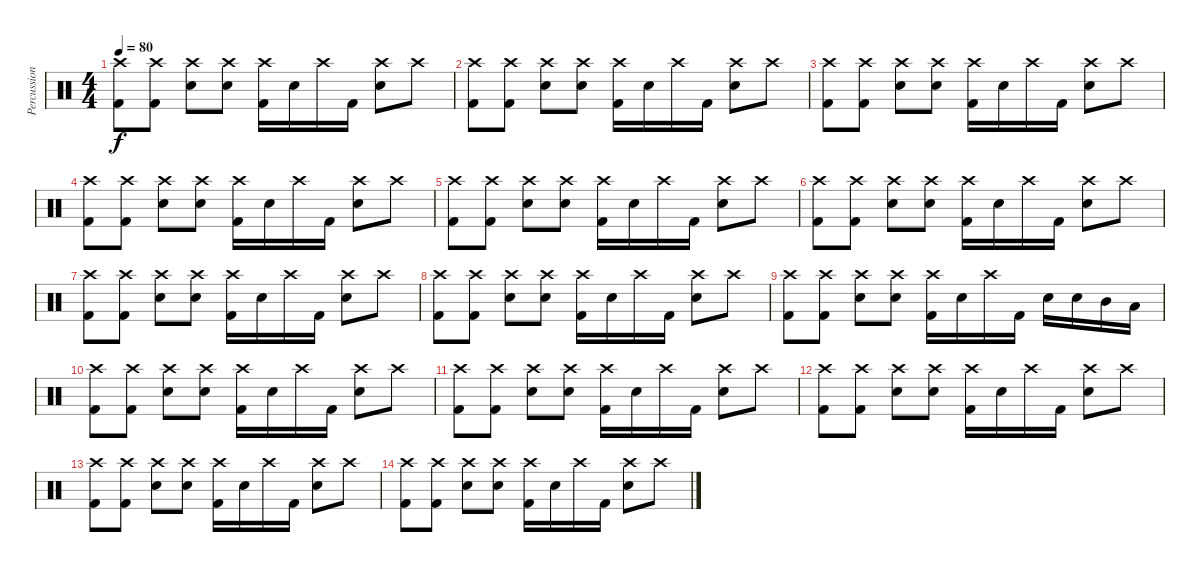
\track ("Percussion" "Percussion") {instrument percussion}
\staff {score}
\articulation defaults
\ts (4 4)
\tempo 80
\clef neutral
\ks c
("Kick (hit) 2" "Crash high (hit)").8{dy f} ("Kick (hit) 2" "Crash high (hit)").8 ("Electric Snare (hit)" "Crash high (hit)").8 ("Electric Snare (hit)" "Crash high (hit)").8 ("Kick (hit) 2" "Crash high (hit)").16 "Electric Snare (hit)".16 "Crash high (hit)".16 "Kick (hit) 2".16 ("Electric Snare (hit)" "Crash high (hit)").8 "Crash high (hit)".8 |
("Kick (hit) 2" "Crash high (hit)").8 ("Kick (hit) 2" "Crash high (hit)").8 ("Electric Snare (hit)" "Crash high (hit)").8 ("Electric Snare (hit)" "Crash high (hit)").8 ("Kick (hit) 2" "Crash high (hit)").16 "Electric Snare (hit)".16 "Crash high (hit)".16 "Kick (hit) 2".16 ("Electric Snare (hit)" "Crash high (hit)").8 "Crash high (hit)".8 |
("Kick (hit) 2" "Crash high (hit)").8 ("Kick (hit) 2" "Crash high (hit)").8 ("Electric Snare (hit)" "Crash high (hit)").8 ("Electric Snare (hit)" "Crash high (hit)").8 ("Kick (hit) 2" "Crash high (hit)").16 "Electric Snare (hit)".16 "Crash high (hit)".16 "Kick (hit) 2".16 ("Electric Snare (hit)" "Crash high (hit)").8 "Crash high (hit)".8 |
("Kick (hit) 2" "Crash high (hit)").8 ("Kick (hit) 2" "Crash high (hit)").8 ("Electric Snare (hit)" "Crash high (hit)").8 ("Electric Snare (hit)" "Crash high (hit)").8 ("Kick (hit) 2" "Crash high (hit)").16 "Electric Snare (hit)".16 "Crash high (hit)".16 "Kick (hit) 2".16 ("Electric Snare (hit)" "Crash high (hit)").8 "Crash high (hit)".8 |
("Kick (hit) 2" "Crash high (hit)").8 ("Kick (hit) 2" "Crash high (hit)").8 ("Electric Snare (hit)" "Crash high (hit)").8 ("Electric Snare (hit)" "Crash high (hit)").8 ("Kick (hit) 2" "Crash high (hit)").16 "Electric Snare (hit)".16 "Crash high (hit)".16 "Kick (hit) 2".16 ("Electric Snare (hit)" "Crash high (hit)").8 "Crash high (hit)".8 |
("Kick (hit) 2" "Crash high (hit)").8 ("Kick (hit) 2" "Crash high (hit)").8 ("Electric Snare (hit)" "Crash high (hit)").8 ("Electric Snare (hit)" "Crash high (hit)").8 ("Kick (hit) 2" "Crash high (hit)").16 "Electric Snare (hit)".16 "Crash high (hit)".16 "Kick (hit) 2".16 ("Electric Snare (hit)" "Crash high (hit)").8 "Crash high (hit)".8 |
("Kick (hit) 2" "Crash high (hit)").8 ("Kick (hit) 2" "Crash high (hit)").8 ("Electric Snare (hit)" "Crash high (hit)").8 ("Electric Snare (hit)" "Crash high (hit)").8 ("Kick (hit) 2" "Crash high (hit)").16 "Electric Snare (hit)".16 "Crash high (hit)".16 "Kick (hit) 2".16 ("Electric Snare (hit)" "Crash high (hit)").8 "Crash high (hit)".8 |
("Kick (hit) 2" "Crash high (hit)").8 ("Kick (hit) 2" "Crash high (hit)").8 ("Electric Snare (hit)" "Crash high (hit)").8 ("Electric Snare (hit)" "Crash high (hit)").8 ("Kick (hit) 2" "Crash high (hit)").16 "Electric Snare (hit)".16 "Crash high (hit)".16 "Kick (hit) 2".16 ("Electric Snare (hit)" "Crash high (hit)").8 "Crash high (hit)".8 |
("Kick (hit) 2" "Crash high (hit)").8 ("Kick (hit) 2" "Crash high (hit)").8 ("Electric Snare (hit)" "Crash high (hit)").8 ("Electric Snare (hit)" "Crash high (hit)").8 ("Kick (hit) 2" "Crash high (hit)").16 "Electric Snare (hit)".16 "Crash high (hit)".16 "Kick (hit) 2".16 "Electric Snare (hit)".16 "Electric Snare (hit)".16 "Mid Tom (hit)".16 "Low Tom (hit)".16 |
("Kick (hit) 2" "Crash high (hit)").8 ("Kick (hit) 2" "Crash high (hit)").8 ("Electric Snare (hit)" "Crash high (hit)").8 ("Electric Snare (hit)" "Crash high (hit)").8 ("Kick (hit) 2" "Crash high (hit)").16 "Electric Snare (hit)".16 "Crash high (hit)".16 "Kick (hit) 2".16 ("Electric Snare (hit)" "Crash high (hit)").8 "Crash high (hit)".8 |
("Kick (hit) 2" "Crash high (hit)").8 ("Kick (hit) 2" "Crash high (hit)").8 ("Electric Snare (hit)" "Crash high (hit)").8 ("Electric Snare (hit)" "Crash high (hit)").8 ("Kick (hit) 2" "Crash high (hit)").16 "Electric Snare (hit)".16 "Crash high (hit)".16 "Kick (hit) 2".16 ("Electric Snare (hit)" "Crash high (hit)").8 "Crash high (hit)".8 |
("Kick (hit) 2" "Crash high (hit)").8 ("Kick (hit) 2" "Crash high (hit)").8 ("Electric Snare (hit)" "Crash high (hit)").8 ("Electric Snare (hit)" "Crash high (hit)").8 ("Kick (hit) 2" "Crash high (hit)").16 "Electric Snare (hit)".16 "Crash high (hit)".16 "Kick (hit) 2".16 ("Electric Snare (hit)" "Crash high (hit)").8 "Crash high (hit)".8 |
("Kick (hit) 2" "Crash high (hit)").8 ("Kick (hit) 2" "Crash high (hit)").8 ("Electric Snare (hit)" "Crash high (hit)").8 ("Electric Snare (hit)" "Crash high (hit)").8 ("Kick (hit) 2" "Crash high (hit)").16 "Electric Snare (hit)".16 "Crash high (hit)".16 "Kick (hit) 2".16 ("Electric Snare (hit)" "Crash high (hit)").8 "Crash high (hit)".8 |
("Kick (hit) 2" "Crash high (hit)").8 ("Kick (hit) 2" "Crash high (hit)").8 ("Electric Snare (hit)" "Crash high (hit)").8 ("Electric Snare (hit)" "Crash high (hit)").8 ("Kick (hit) 2" "Crash high (hit)").16 "Electric Snare (hit)".16 "Crash high (hit)".16 "Kick (hit) 2".16 ("Electric Snare (hit)" "Crash high (hit)").8 "Crash high (hit)".8
